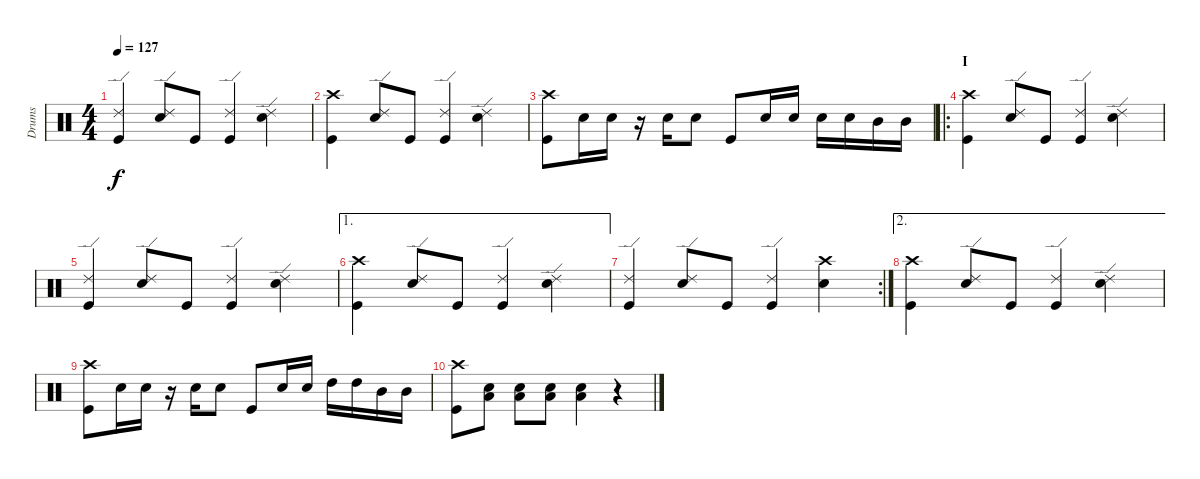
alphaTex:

\track ("Drums" "Drums") {instrument percussion}
\staff {score}
\articulation defaults
\ts (4 4)
\tempo 127
\clef neutral
\ks c
("Ride (edge) 2" "Kick (hit)").4{dy f} ("Ride (edge) 2" "Snare (hit) 2").8 "Kick (hit)".8 ("Ride (edge) 2" "Kick (hit)").4 ("Ride (edge) 2" "Snare (hit) 2").4 |
("Crash high (hit)" "Kick (hit)").4 ("Ride (edge) 2" "Snare (hit) 2").8 "Kick (hit)".8 ("Ride (edge) 2" "Kick (hit)").4 ("Ride (edge) 2" "Snare (hit) 2").4 |
("Crash high (hit)" "Kick (hit)").8 "Snare (hit) 2".16 "Snare (hit) 2".16 r.16 "Snare (hit) 2".16 "Snare (hit) 2".8 "Kick (hit)".8 "Snare (hit) 2".16 "Snare (hit) 2".16 "Snare (hit) 2".16 "Snare (hit) 2".16 "Mid Tom (hit)".16 "Mid Tom (hit)".16 |
\ro
\section ("" "I")
("Crash high (hit)" "Kick (hit)").4 ("Ride (edge) 2" "Snare (hit) 2").8 "Kick (hit)".8 ("Ride (edge) 2" "Kick (hit)").4 ("Ride (edge) 2" "Snare (hit) 2").4 |
("Ride (edge) 2" "Kick (hit)").4 ("Ride (edge) 2" "Snare (hit) 2").8 "Kick (hit)".8 ("Ride (edge) 2" "Kick (hit)").4 ("Ride (edge) 2" "Snare (hit) 2").4 |
\ae 1
("Crash high (hit)" "Kick (hit)").4 ("Ride (edge) 2" "Snare (hit) 2").8 "Kick (hit)".8 ("Ride (edge) 2" "Kick (hit)").4 ("Ride (edge) 2" "Snare (hit) 2").4 |
\rc 2
("Ride (edge) 2" "Kick (hit)").4 ("Ride (edge) 2" "Snare (hit) 2").8 "Kick (hit)".8 ("Ride (edge) 2" "Kick (hit)").4 ("Crash high (hit)" "Snare (hit) 2").4 |
\ae 2
("Crash high (hit)" "Kick (hit)").4 ("Ride (edge) 2" "Snare (hit) 2").8 "Kick (hit)".8 ("Ride (edge) 2" "Kick (hit)").4 ("Ride (edge) 2" "Snare (hit) 2").4 |
("Crash high (hit)" "Kick (hit)").8 "Snare (hit) 2".16 "Snare (hit) 2".16 r.16 "Snare (hit) 2".16 "Snare (hit) 2".8 "Kick (hit)".8 "Snare (hit) 2".16 "Snare (hit) 2".16 "High Tom (hit)".16 "High Tom (hit)".16 "Mid Tom (hit)".16 "Mid Tom (hit)".16 |
("Crash high (hit)" "Kick (hit)").8 ("Low Tom (hit)" "Snare (hit) 2").8 ("Low Tom (hit)" "Snare (hit) 2").8 ("Low Tom (hit)" "Snare (hit) 2").8 ("Low Tom (hit)" "Snare (hit) 2").4 r.4
